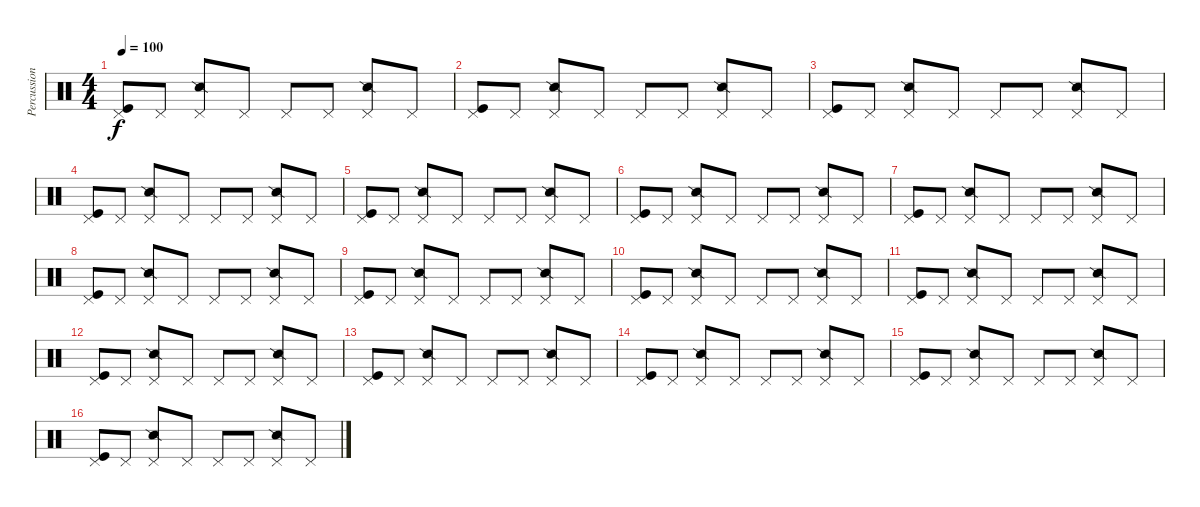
\track ("Percussion" "Percussion") {instrument percussion}
\staff {score}
\articulation defaults
\ts (4 4)
\tempo 100
\clef neutral
\ks c
("Pedal Hi-Hat (hit)" "Kick (hit)").8{dy f} "Pedal Hi-Hat (hit)".8 ("Pedal Hi-Hat (hit)" "Snare (side stick) 2").8 "Pedal Hi-Hat (hit)".8 "Pedal Hi-Hat (hit)".8 "Pedal Hi-Hat (hit)".8 ("Pedal Hi-Hat (hit)" "Snare (side stick) 2").8 "Pedal Hi-Hat (hit)".8 |
("Pedal Hi-Hat (hit)" "Kick (hit)").8 "Pedal Hi-Hat (hit)".8 ("Pedal Hi-Hat (hit)" "Snare (side stick) 2").8 "Pedal Hi-Hat (hit)".8 "Pedal Hi-Hat (hit)".8 "Pedal Hi-Hat (hit)".8 ("Pedal Hi-Hat (hit)" "Snare (side stick) 2").8 "Pedal Hi-Hat (hit)".8 |
("Pedal Hi-Hat (hit)" "Kick (hit)").8 "Pedal Hi-Hat (hit)".8 ("Pedal Hi-Hat (hit)" "Snare (side stick) 2").8 "Pedal Hi-Hat (hit)".8 "Pedal Hi-Hat (hit)".8 "Pedal Hi-Hat (hit)".8 ("Pedal Hi-Hat (hit)" "Snare (side stick) 2").8 "Pedal Hi-Hat (hit)".8 |
("Pedal Hi-Hat (hit)" "Kick (hit)").8 "Pedal Hi-Hat (hit)".8 ("Pedal Hi-Hat (hit)" "Snare (side stick) 2").8 "Pedal Hi-Hat (hit)".8 "Pedal Hi-Hat (hit)".8 "Pedal Hi-Hat (hit)".8 ("Pedal Hi-Hat (hit)" "Snare (side stick) 2").8 "Pedal Hi-Hat (hit)".8 |
("Pedal Hi-Hat (hit)" "Kick (hit)").8 "Pedal Hi-Hat (hit)".8 ("Pedal Hi-Hat (hit)" "Snare (side stick) 2").8 "Pedal Hi-Hat (hit)".8 "Pedal Hi-Hat (hit)".8 "Pedal Hi-Hat (hit)".8 ("Pedal Hi-Hat (hit)" "Snare (side stick) 2").8 "Pedal Hi-Hat (hit)".8 |
("Pedal Hi-Hat (hit)" "Kick (hit)").8 "Pedal Hi-Hat (hit)".8 ("Pedal Hi-Hat (hit)" "Snare (side stick) 2").8 "Pedal Hi-Hat (hit)".8 "Pedal Hi-Hat (hit)".8 "Pedal Hi-Hat (hit)".8 ("Pedal Hi-Hat (hit)" "Snare (side stick) 2").8 "Pedal Hi-Hat (hit)".8 |
("Pedal Hi-Hat (hit)" "Kick (hit)").8 "Pedal Hi-Hat (hit)".8 ("Pedal Hi-Hat (hit)" "Snare (side stick) 2").8 "Pedal Hi-Hat (hit)".8 "Pedal Hi-Hat (hit)".8 "Pedal Hi-Hat (hit)".8 ("Pedal Hi-Hat (hit)" "Snare (side stick) 2").8 "Pedal Hi-Hat (hit)".8 |
("Pedal Hi-Hat (hit)" "Kick (hit)").8 "Pedal Hi-Hat (hit)".8 ("Pedal Hi-Hat (hit)" "Snare (side stick) 2").8 "Pedal Hi-Hat (hit)".8 "Pedal Hi-Hat (hit)".8 "Pedal Hi-Hat (hit)".8 ("Pedal Hi-Hat (hit)" "Snare (side stick) 2").8 "Pedal Hi-Hat (hit)".8 |
("Pedal Hi-Hat (hit)" "Kick (hit)").8 "Pedal Hi-Hat (hit)".8 ("Pedal Hi-Hat (hit)" "Snare (side stick) 2").8 "Pedal Hi-Hat (hit)".8 "Pedal Hi-Hat (hit)".8 "Pedal Hi-Hat (hit)".8 ("Pedal Hi-Hat (hit)" "Snare (side stick) 2").8 "Pedal Hi-Hat (hit)".8 |
("Pedal Hi-Hat (hit)" "Kick (hit)").8 "Pedal Hi-Hat (hit)".8 ("Pedal Hi-Hat (hit)" "Snare (side stick) 2").8 "Pedal Hi-Hat (hit)".8 "Pedal Hi-Hat (hit)".8 "Pedal Hi-Hat (hit)".8 ("Pedal Hi-Hat (hit)" "Snare (side stick) 2").8 "Pedal Hi-Hat (hit)".8 |
("Pedal Hi-Hat (hit)" "Kick (hit)").8 "Pedal Hi-Hat (hit)".8 ("Pedal Hi-Hat (hit)" "Snare (side stick) 2").8 "Pedal Hi-Hat (hit)".8 "Pedal Hi-Hat (hit)".8 "Pedal Hi-Hat (hit)".8 ("Pedal Hi-Hat (hit)" "Snare (side stick) 2").8 "Pedal Hi-Hat (hit)".8 |
("Pedal Hi-Hat (hit)" "Kick (hit)").8 "Pedal Hi-Hat (hit)".8 ("Pedal Hi-Hat (hit)" "Snare (side stick) 2").8 "Pedal Hi-Hat (hit)".8 "Pedal Hi-Hat (hit)".8 "Pedal Hi-Hat (hit)".8 ("Pedal Hi-Hat (hit)" "Snare (side stick) 2").8 "Pedal Hi-Hat (hit)".8 |
("Pedal Hi-Hat (hit)" "Kick (hit)").8 "Pedal Hi-Hat (hit)".8 ("Pedal Hi-Hat (hit)" "Snare (side stick) 2").8 "Pedal Hi-Hat (hit)".8 "Pedal Hi-Hat (hit)".8 "Pedal Hi-Hat (hit)".8 ("Pedal Hi-Hat (hit)" "Snare (side stick) 2").8 "Pedal Hi-Hat (hit)".8 |
("Pedal Hi-Hat (hit)" "Kick (hit)").8 "Pedal Hi-Hat (hit)".8 ("Pedal Hi-Hat (hit)" "Snare (side stick) 2").8 "Pedal Hi-Hat (hit)".8 "Pedal Hi-Hat (hit)".8 "Pedal Hi-Hat (hit)".8 ("Pedal Hi-Hat (hit)" "Snare (side stick) 2").8 "Pedal Hi-Hat (hit)".8 |
("Pedal Hi-Hat (hit)" "Kick (hit)").8 "Pedal Hi-Hat (hit)".8 ("Pedal Hi-Hat (hit)" "Snare (side stick) 2").8 "Pedal Hi-Hat (hit)".8 "Pedal Hi-Hat (hit)".8 "Pedal Hi-Hat (hit)".8 ("Pedal Hi-Hat (hit)" "Snare (side stick) 2").8 "Pedal Hi-Hat (hit)".8 |
("Pedal Hi-Hat (hit)" "Kick (hit)").8 "Pedal Hi-Hat (hit)".8 ("Pedal Hi-Hat (hit)" "Snare (side stick) 2").8 "Pedal Hi-Hat (hit)".8 "Pedal Hi-Hat (hit)".8 "Pedal Hi-Hat (hit)".8 ("Pedal Hi-Hat (hit)" "Snare (side stick) 2").8 "Pedal Hi-Hat (hit)".8
